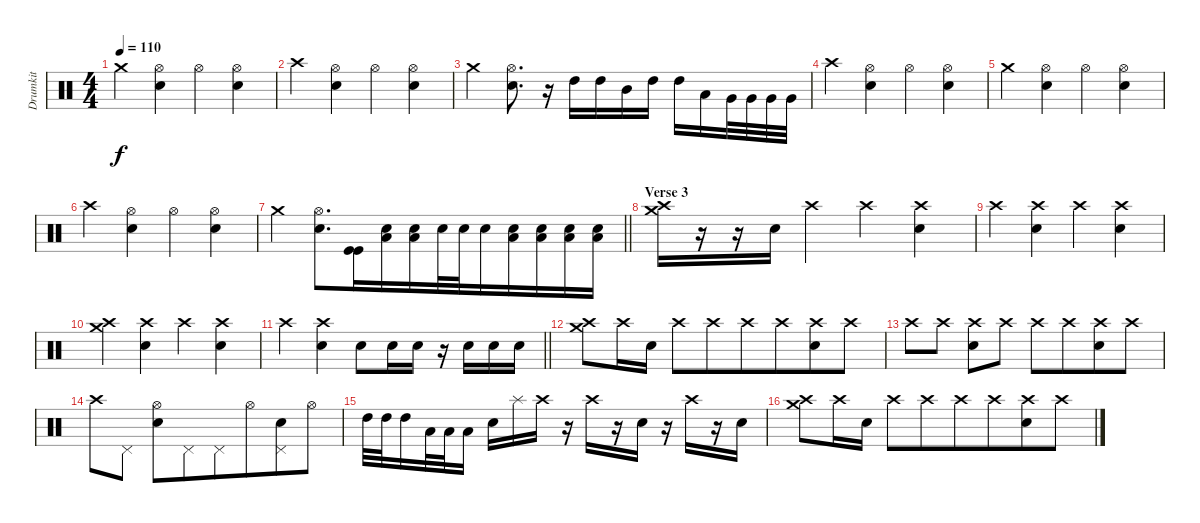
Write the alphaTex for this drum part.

\track ("Drumkit" "Drumkit") {instrument percussion}
\staff {score}
\articulation defaults
\ts (4 4)
\tempo 110
\clef neutral
\ks c "Crash medium (hit)".4{dy f}
("Hi-Hat (open)" "Electric Snare (hit)").4{beam merge} "Hi-Hat (open)".4{beam merge} ("Hi-Hat (open)" "Electric Snare (hit)").4 |
"Crash high (hit)".4 ("Hi-Hat (open)" "Electric Snare (hit)").4{beam merge} "Hi-Hat (open)".4{beam merge} ("Hi-Hat (open)" "Electric Snare (hit)").4 |
"Crash medium (hit)".4 ("Hi-Hat (open)" "Electric Snare (hit)").8{d} r.16{beam merge} "High Tom (hit)".16 "High Tom (hit)".16{beam merge} "Mid Tom (hit)".16 "High Tom (hit)".16 "High Tom (hit)".16{beam merge} "Low Floor Tom (hit)".16{beam merge} "Very Low Tom (hit)".32 "Very Low Tom (hit)".32 "Very Low Tom (hit)".32{beam merge} "Very Low Tom (hit)".32 |
"Crash high (hit)".4 ("Hi-Hat (open)" "Electric Snare (hit)").4{beam merge} "Hi-Hat (open)".4{beam merge} ("Hi-Hat (open)" "Electric Snare (hit)").4 |
"Crash medium (hit)".4 ("Hi-Hat (open)" "Electric Snare (hit)").4{beam merge} "Hi-Hat (open)".4{beam merge} ("Hi-Hat (open)" "Electric Snare (hit)").4 |
"Crash high (hit)".4 ("Hi-Hat (open)" "Electric Snare (hit)").4{beam merge} "Hi-Hat (open)".4{beam merge} ("Hi-Hat (open)" "Electric Snare (hit)").4 |
\barLineRight lightlight "Crash medium (hit)".4
("Hi-Hat (open)" "Electric Snare (hit)").8{d} ("Kick (hit)" "Kick (hit)").16{beam merge} ("Low Floor Tom (hit)" "Electric Snare (hit)").16 ("Low Floor Tom (hit)" "Electric Snare (hit)").16{beam merge} "Electric Snare (hit)".32 "Electric Snare (hit)".32 "Electric Snare (hit)".16{beam merge} ("Low Floor Tom (hit)" "Electric Snare (hit)").16 ("Low Floor Tom (hit)" "Electric Snare (hit)").16 ("Low Floor Tom (hit)" "Electric Snare (hit)").16{beam merge} ("Low Floor Tom (hit)" "Electric Snare (hit)").16 |
\section ("" "Verse 3")
("Crash medium (hit)" "Crash high (hit)").16 r.16 r.16{beam merge} "Electric Snare (hit)".16{beam merge} "Crash high (hit)".4 "Crash high (hit)".4 ("Crash high (hit)" "Electric Snare (hit)").4 |
"Crash high (hit)".4 ("Crash high (hit)" "Electric Snare (hit)").4{beam merge} "Crash high (hit)".4 ("Crash high (hit)" "Electric Snare (hit)").4 |
("Crash medium (hit)" "Crash high (hit)").4{beam merge} ("Crash high (hit)" "Electric Snare (hit)").4 "Crash high (hit)".4 ("Crash high (hit)" "Electric Snare (hit)").4 |
\barLineRight lightlight "Crash high (hit)".4
("Crash high (hit)" "Electric Snare (hit)").4{beam merge} "Electric Snare (hit)".8 "Electric Snare (hit)".16 "Electric Snare (hit)".16 r.16 "Electric Snare (hit)".16 "Electric Snare (hit)".16 "Electric Snare (hit)".16 |
("Crash medium (hit)" "Crash high (hit)").8 "Crash high (hit)".16{beam merge} "Electric Snare (hit)".16 "Crash high (hit)".8 "Crash high (hit)".8{beam merge} "Crash high (hit)".8 "Crash high (hit)".8{beam merge} ("Crash high (hit)" "Electric Snare (hit)").8{beam merge} "Crash high (hit)".8 |
"Crash high (hit)".8 "Crash high (hit)".8 ("Crash high (hit)" "Electric Snare (hit)").8 "Crash high (hit)".8 "Crash high (hit)".8 "Crash high (hit)".8{beam merge} ("Crash high (hit)" "Electric Snare (hit)").8 "Crash high (hit)".8 |
"Crash high (hit)".8 "Pedal Hi-Hat (hit)".8 ("Hi-Hat (open)" "Electric Snare (hit)").8 "Pedal Hi-Hat (hit)".8{beam merge} "Pedal Hi-Hat (hit)".8 "Hi-Hat (open)".8{beam merge} ("Pedal Hi-Hat (hit)" "Electric Snare (hit)").8 "Hi-Hat (open)".8 |
"High Tom (hit)".32 "High Tom (hit)".32 "High Tom (hit)".16 "Low Floor Tom (hit)".32{beam merge} "Low Floor Tom (hit)".32 "Low Floor Tom (hit)".16 "Electric Snare (hit)".16 "Splash (hit)".16 "Crash high (hit)".16 r.16 "Crash high (hit)".16{beam merge} r.16 "Electric Snare (hit)".16 r.16 "Crash high (hit)".16{beam merge} r.16 "Electric Snare (hit)".16 |
("Crash medium (hit)" "Crash high (hit)").8 "Crash high (hit)".16{beam merge} "Electric Snare (hit)".16 "Crash high (hit)".8 "Crash high (hit)".8{beam merge} "Crash high (hit)".8 "Crash high (hit)".8{beam merge} ("Crash high (hit)" "Electric Snare (hit)").8{beam merge} "Crash high (hit)".8
